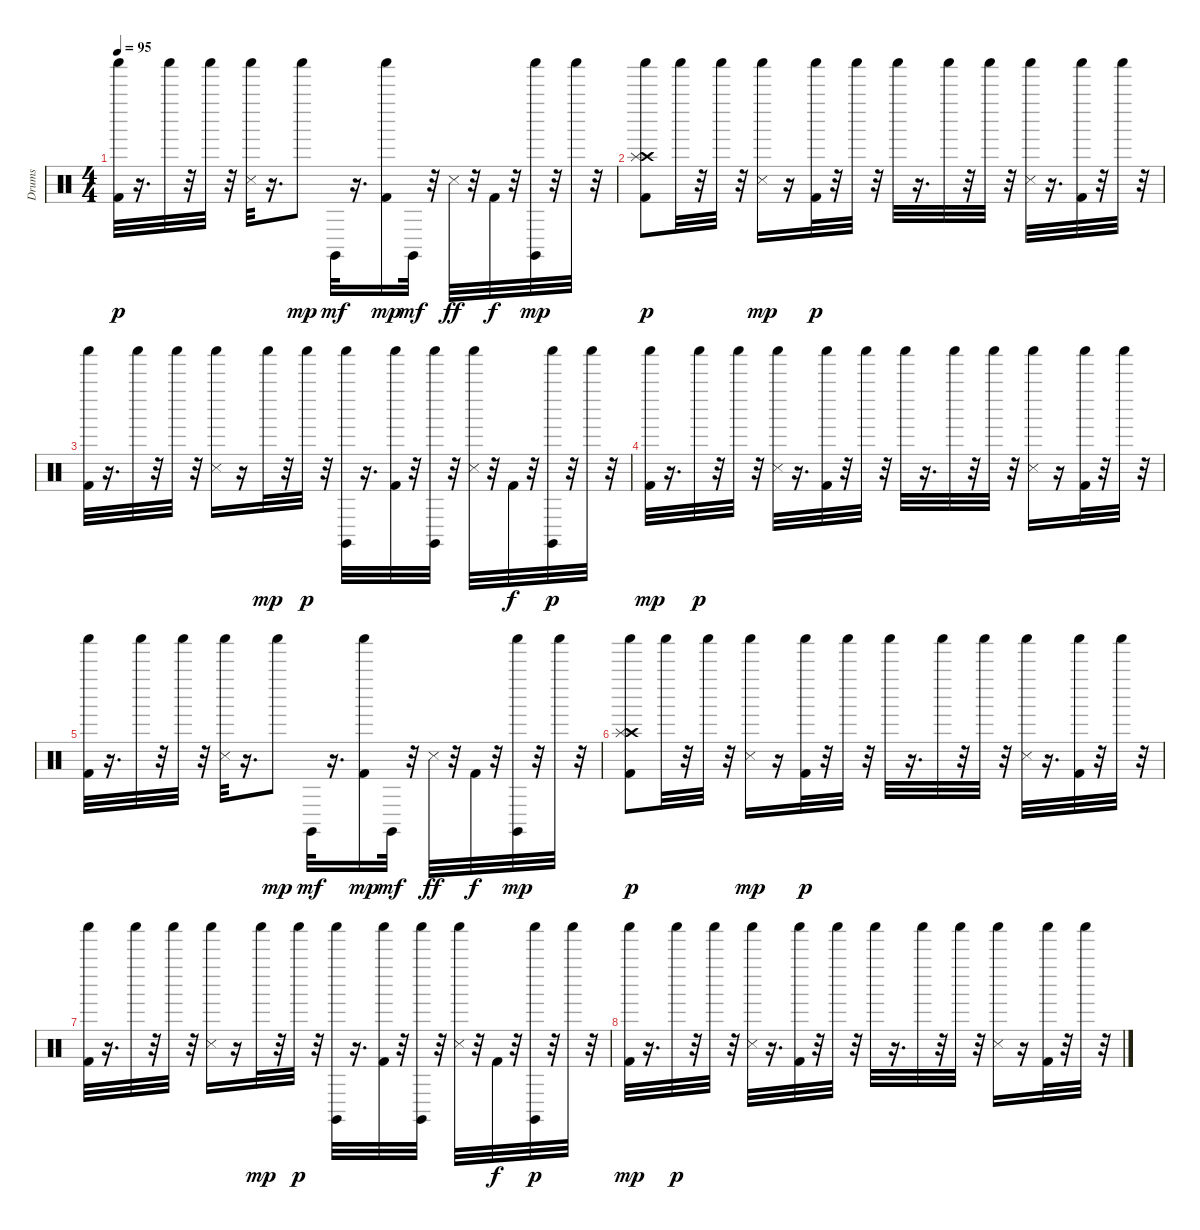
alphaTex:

\track ("Drums" "Drums") {instrument percussion}
\staff {score}
\articulation defaults
\ts (4 4)
\tempo 95
\clef neutral
\ks c
("Kick (hit) 2" "Shaker (hit)").32{dy p} r.16{d} "Shaker (hit)".32 r.32 "Shaker (hit)".32 r.32 ("Snare (side stick) 3" "Shaker (hit)").32 r.16{d} "Shaker (hit)".8{dy mp} "Claves (hit)".32{dy mf} r.16{d} ("Kick (hit) 2" "Shaker (hit)").16{dy mp} "Claves (hit)".32{dy mf} r.32 "Snare (side stick) 3".32{dy ff} r.32 "Kick (hit) 2".32{dy f} r.32 ("Claves (hit)" "Shaker (hit)").32{dy mp} r.32 "Shaker (hit)".32 r.32 |
("Kick (hit) 2" "Crash high (hit)" "Splash (hit)" "Shaker (hit)").8{dy p} "Shaker (hit)".32 r.32 "Shaker (hit)".32 r.32 ("Snare (side stick) 3" "Shaker (hit)").16{dy mp} r.16 ("Kick (hit) 2" "Shaker (hit)").32{dy p} r.32 "Shaker (hit)".32 r.32 "Shaker (hit)".32 r.16{d} "Shaker (hit)".32 r.32 "Shaker (hit)".32 r.32 ("Snare (side stick) 3" "Shaker (hit)").32 r.16{d} ("Kick (hit) 2" "Shaker (hit)").32 r.32 "Shaker (hit)".32 r.32 |
("Kick (hit) 2" "Shaker (hit)").32 r.16{d} "Shaker (hit)".32 r.32 "Shaker (hit)".32 r.32 ("Snare (side stick) 3" "Shaker (hit)").16 r.16 "Shaker (hit)".32{dy mp} r.32 "Shaker (hit)".32{dy p} r.32 ("Claves (hit)" "Shaker (hit)").32 r.16{d} ("Kick (hit) 2" "Shaker (hit)").32 r.32 ("Claves (hit)" "Shaker (hit)").32 r.32 ("Snare (side stick) 3" "Shaker (hit)").32 r.32 "Kick (hit) 2".32{dy f} r.32 ("Claves (hit)" "Shaker (hit)").32{dy p} r.32 "Shaker (hit)".32 r.32 |
("Kick (hit) 2" "Shaker (hit)").32{dy mp} r.16{d} "Shaker (hit)".32{dy p} r.32 "Shaker (hit)".32 r.32 ("Snare (side stick) 3" "Shaker (hit)").32 r.16{d} ("Kick (hit) 2" "Shaker (hit)").32 r.32 "Shaker (hit)".32 r.32 "Shaker (hit)".32 r.16{d} "Shaker (hit)".32 r.32 "Shaker (hit)".32 r.32 ("Snare (side stick) 3" "Shaker (hit)").16 r.16 ("Kick (hit) 2" "Shaker (hit)").32 r.32 "Shaker (hit)".32 r.32 |
("Kick (hit) 2" "Shaker (hit)").32 r.16{d} "Shaker (hit)".32 r.32 "Shaker (hit)".32 r.32 ("Snare (side stick) 3" "Shaker (hit)").32 r.16{d} "Shaker (hit)".8{dy mp} "Claves (hit)".32{dy mf} r.16{d} ("Kick (hit) 2" "Shaker (hit)").16{dy mp} "Claves (hit)".32{dy mf} r.32 "Snare (side stick) 3".32{dy ff} r.32 "Kick (hit) 2".32{dy f} r.32 ("Claves (hit)" "Shaker (hit)").32{dy mp} r.32 "Shaker (hit)".32 r.32 |
("Kick (hit) 2" "Crash high (hit)" "Splash (hit)" "Shaker (hit)").8{dy p} "Shaker (hit)".32 r.32 "Shaker (hit)".32 r.32 ("Snare (side stick) 3" "Shaker (hit)").16{dy mp} r.16 ("Kick (hit) 2" "Shaker (hit)").32{dy p} r.32 "Shaker (hit)".32 r.32 "Shaker (hit)".32 r.16{d} "Shaker (hit)".32 r.32 "Shaker (hit)".32 r.32 ("Snare (side stick) 3" "Shaker (hit)").32 r.16{d} ("Kick (hit) 2" "Shaker (hit)").32 r.32 "Shaker (hit)".32 r.32 |
("Kick (hit) 2" "Shaker (hit)").32 r.16{d} "Shaker (hit)".32 r.32 "Shaker (hit)".32 r.32 ("Snare (side stick) 3" "Shaker (hit)").16 r.16 "Shaker (hit)".32{dy mp} r.32 "Shaker (hit)".32{dy p} r.32 ("Claves (hit)" "Shaker (hit)").32 r.16{d} ("Kick (hit) 2" "Shaker (hit)").32 r.32 ("Claves (hit)" "Shaker (hit)").32 r.32 ("Snare (side stick) 3" "Shaker (hit)").32 r.32 "Kick (hit) 2".32{dy f} r.32 ("Claves (hit)" "Shaker (hit)").32{dy p} r.32 "Shaker (hit)".32 r.32 |
("Kick (hit) 2" "Shaker (hit)").32{dy mp} r.16{d} "Shaker (hit)".32{dy p} r.32 "Shaker (hit)".32 r.32 ("Snare (side stick) 3" "Shaker (hit)").32 r.16{d} ("Kick (hit) 2" "Shaker (hit)").32 r.32 "Shaker (hit)".32 r.32 "Shaker (hit)".32 r.16{d} "Shaker (hit)".32 r.32 "Shaker (hit)".32 r.32 ("Snare (side stick) 3" "Shaker (hit)").16 r.16 ("Kick (hit) 2" "Shaker (hit)").32 r.32 "Shaker (hit)".32 r.32
